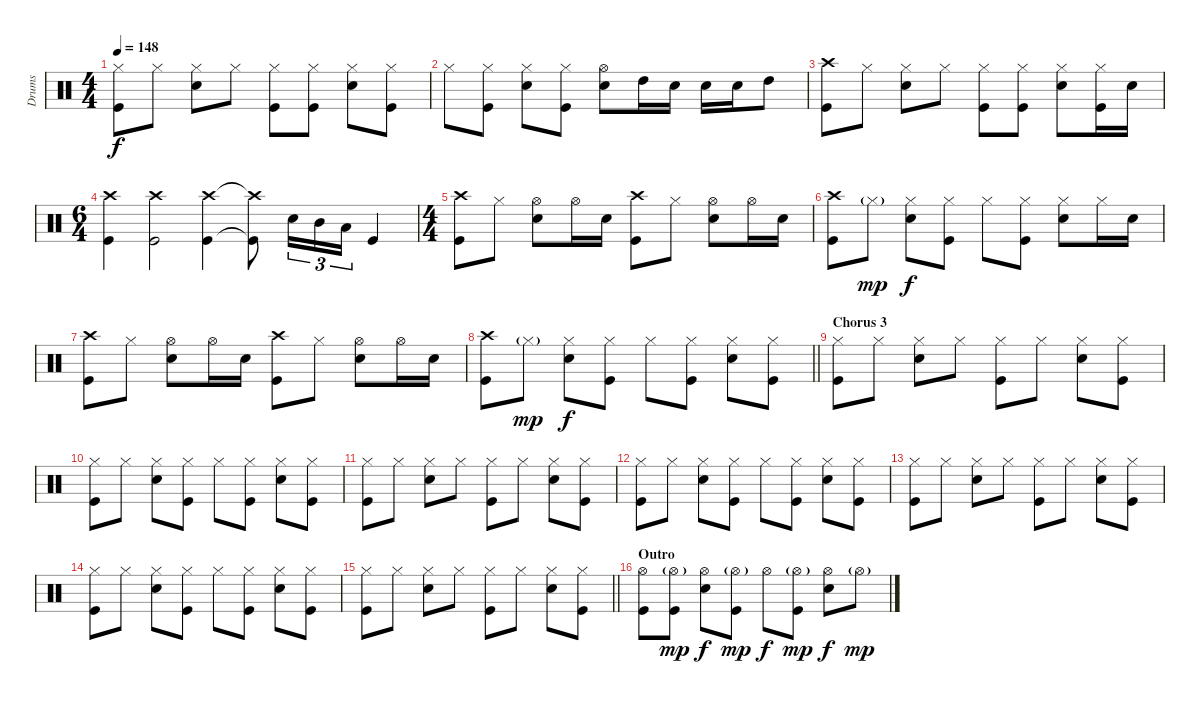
\track ("Drums" "Drums") {instrument percussion}
\staff
\articulation defaults
\ts (4 4)
\tempo 148
\clef neutral
\ks c
("Hi-Hat (closed)" "Kick (hit)").8{dy f} "Hi-Hat (closed)".8 ("Hi-Hat (closed)" "Snare (hit) 2").8 "Hi-Hat (closed)".8 ("Hi-Hat (closed)" "Kick (hit)").8 ("Hi-Hat (closed)" "Kick (hit)").8 ("Hi-Hat (closed)" "Snare (hit) 2").8 ("Hi-Hat (closed)" "Kick (hit)").8 |
"Hi-Hat (closed)".8 ("Hi-Hat (closed)" "Kick (hit)").8 ("Hi-Hat (closed)" "Snare (hit) 2").8 ("Hi-Hat (closed)" "Kick (hit)").8 ("Hi-Hat (open)" "Snare (hit) 2").8 "High Tom (hit)".16 "Snare (hit) 2".16 "Snare (hit) 2".16 "Snare (hit) 2".16 "High Tom (hit)".8 |
("Crash high (hit)" "Kick (hit)").8 "Hi-Hat (closed)".8 ("Hi-Hat (closed)" "Snare (hit) 2").8 "Hi-Hat (closed)".8 ("Hi-Hat (closed)" "Kick (hit)").8 ("Hi-Hat (closed)" "Kick (hit)").8 ("Hi-Hat (closed)" "Snare (hit) 2").8 ("Hi-Hat (closed)" "Kick (hit)").16 "Snare (hit) 2".16 |
\ts (6 4)
("Crash high (hit)" "Kick (hit)").4 ("Crash high (hit)" "Kick (hit)").2 ("Crash high (hit)" "Kick (hit)").4 ("Crash high (hit)"{t} "Kick (hit)"{t}).8 "Snare (hit) 2".16{tu (3 2)} "Mid Tom (hit)".16{tu (3 2)} "Low Tom (hit)".16{tu (3 2)} "Kick (hit)".4 |
\ts (4 4)
("Crash high (hit)" "Kick (hit)").8 "Hi-Hat (closed)".8 ("Hi-Hat (open)" "Snare (hit) 2").8 "Hi-Hat (open)".16 "Snare (hit) 2".16 ("Crash high (hit)" "Kick (hit)").8 "Hi-Hat (closed)".8 ("Hi-Hat (open)" "Snare (hit) 2").8 "Hi-Hat (open)".16 "Snare (hit) 2".16 |
("Crash high (hit)" "Kick (hit)").8 "Hi-Hat (closed)"{g}.8{dy mp} ("Hi-Hat (closed)" "Snare (hit) 2").8{dy f} ("Hi-Hat (closed)" "Kick (hit)").8 "Hi-Hat (closed)".8 ("Hi-Hat (closed)" "Kick (hit)").8 ("Hi-Hat (closed)" "Snare (hit) 2").8 "Hi-Hat (closed)".16 "Snare (hit) 2".16 |
("Crash high (hit)" "Kick (hit)").8 "Hi-Hat (closed)".8 ("Hi-Hat (open)" "Snare (hit) 2").8 "Hi-Hat (open)".16 "Snare (hit) 2".16 ("Crash high (hit)" "Kick (hit)").8 "Hi-Hat (closed)".8 ("Hi-Hat (open)" "Snare (hit) 2").8 "Hi-Hat (open)".16 "Snare (hit) 2".16 |
\barLineRight lightlight
("Crash high (hit)" "Kick (hit)").8 "Hi-Hat (closed)"{g}.8{dy mp} ("Hi-Hat (closed)" "Snare (hit) 2").8{dy f} ("Hi-Hat (closed)" "Kick (hit)").8 "Hi-Hat (closed)".8 ("Hi-Hat (closed)" "Kick (hit)").8 ("Hi-Hat (closed)" "Snare (hit) 2").8 ("Hi-Hat (closed)" "Kick (hit)").8 |
\section ("" "Chorus 3")
("Hi-Hat (closed)" "Kick (hit)").8 "Hi-Hat (closed)".8 ("Hi-Hat (closed)" "Snare (hit) 2").8 "Hi-Hat (closed)".8 ("Hi-Hat (closed)" "Kick (hit)").8 "Hi-Hat (closed)".8 ("Hi-Hat (closed)" "Snare (hit) 2").8 ("Hi-Hat (closed)" "Kick (hit)").8 |
("Hi-Hat (closed)" "Kick (hit)").8 "Hi-Hat (closed)".8 ("Hi-Hat (closed)" "Snare (hit) 2").8 ("Hi-Hat (closed)" "Kick (hit)").8 "Hi-Hat (closed)".8 ("Hi-Hat (closed)" "Kick (hit)").8 ("Hi-Hat (closed)" "Snare (hit) 2").8 ("Hi-Hat (closed)" "Kick (hit)").8 |
("Hi-Hat (closed)" "Kick (hit)").8 "Hi-Hat (closed)".8 ("Hi-Hat (closed)" "Snare (hit) 2").8 "Hi-Hat (closed)".8 ("Hi-Hat (closed)" "Kick (hit)").8 "Hi-Hat (closed)".8 ("Hi-Hat (closed)" "Snare (hit) 2").8 ("Hi-Hat (closed)" "Kick (hit)").8 |
("Hi-Hat (closed)" "Kick (hit)").8 "Hi-Hat (closed)".8 ("Hi-Hat (closed)" "Snare (hit) 2").8 ("Hi-Hat (closed)" "Kick (hit)").8 "Hi-Hat (closed)".8 ("Hi-Hat (closed)" "Kick (hit)").8 ("Hi-Hat (closed)" "Snare (hit) 2").8 ("Hi-Hat (closed)" "Kick (hit)").8 |
("Hi-Hat (closed)" "Kick (hit)").8 "Hi-Hat (closed)".8 ("Hi-Hat (closed)" "Snare (hit) 2").8 "Hi-Hat (closed)".8 ("Hi-Hat (closed)" "Kick (hit)").8 "Hi-Hat (closed)".8 ("Hi-Hat (closed)" "Snare (hit) 2").8 ("Hi-Hat (closed)" "Kick (hit)").8 |
("Hi-Hat (closed)" "Kick (hit)").8 "Hi-Hat (closed)".8 ("Hi-Hat (closed)" "Snare (hit) 2").8 ("Hi-Hat (closed)" "Kick (hit)").8 "Hi-Hat (closed)".8 ("Hi-Hat (closed)" "Kick (hit)").8 ("Hi-Hat (closed)" "Snare (hit) 2").8 ("Hi-Hat (closed)" "Kick (hit)").8 |
\barLineRight lightlight
("Hi-Hat (closed)" "Kick (hit)").8 "Hi-Hat (closed)".8 ("Hi-Hat (closed)" "Snare (hit) 2").8 "Hi-Hat (closed)".8 ("Hi-Hat (closed)" "Kick (hit)").8 "Hi-Hat (closed)".8 ("Hi-Hat (closed)" "Snare (hit) 2").8 ("Hi-Hat (closed)" "Kick (hit)").8 |
\section ("" "Outro")
("Hi-Hat (open)" "Kick (hit)").8 ("Hi-Hat (open)"{g} "Kick (hit)").8{dy mp} ("Hi-Hat (open)" "Snare (hit) 2").8{dy f} ("Hi-Hat (open)"{g} "Kick (hit)").8{dy mp} "Hi-Hat (open)".8{dy f} ("Hi-Hat (open)"{g} "Kick (hit)").8{dy mp} ("Hi-Hat (open)" "Snare (hit) 2").8{dy f} "Hi-Hat (open)"{g}.8{dy mp}
